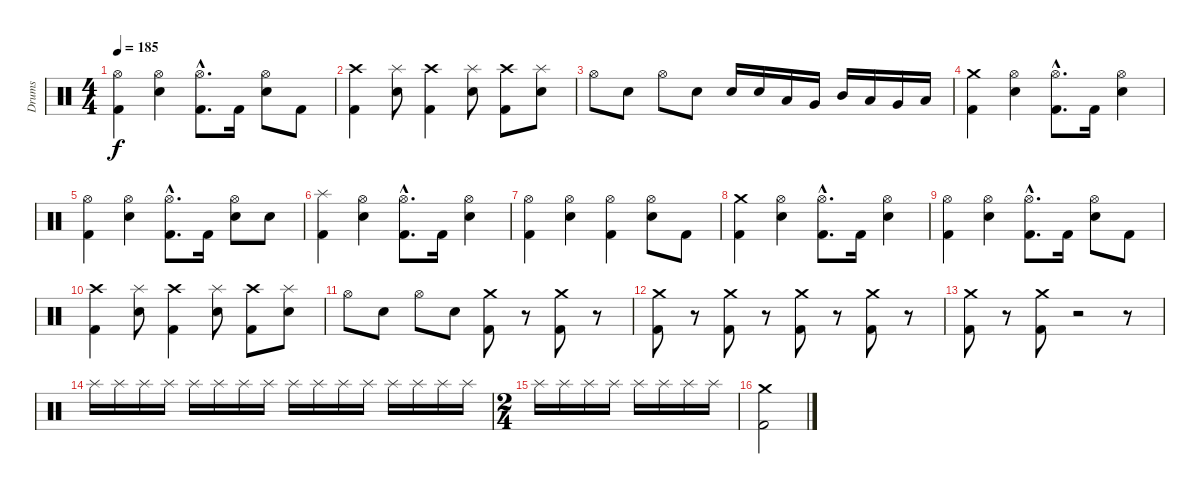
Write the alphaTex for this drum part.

\track ("Drums" "Drums") {instrument percussion}
\staff {score}
\articulation defaults
\ts (4 4)
\tempo 185
\clef neutral
\ks c
("Hi-Hat (open)" "Kick (hit) 2").4{dy f} ("Hi-Hat (open)" "Snare (hit) 2").4 ("Hi-Hat (open)"{hac} "Kick (hit) 2"{hac}).8{d} "Kick (hit) 2".16 ("Hi-Hat (open)" "Snare (hit) 2").8 "Kick (hit) 2".8 |
("Crash high (hit)" "Kick (hit) 2").4 ("Splash (hit)" "Snare (hit) 2").8 ("Crash high (hit)" "Kick (hit) 2").4 ("Splash (hit)" "Snare (hit) 2").8 ("Crash high (hit)" "Kick (hit) 2").8 ("Splash (hit)" "Snare (hit) 2").8 |
"Hi-Hat (open)".8 "Snare (hit) 2".8 "Hi-Hat (open)".8 "Snare (hit) 2".8 "Snare (hit) 2".16 "Snare (hit) 2".16 "Low Tom (hit)".16 "Very Low Tom (hit)".16 "Mid Tom (hit)".16 "Low Tom (hit)".16 "Very Low Tom (hit)".16 "Low Floor Tom (hit)".16 |
("Crash medium (hit)" "Kick (hit) 2").4 ("Hi-Hat (open)" "Snare (hit) 2").4 ("Hi-Hat (open)"{hac} "Kick (hit) 2"{hac}).8{d} "Kick (hit) 2".16 ("Hi-Hat (open)" "Snare (hit) 2").4 |
("Hi-Hat (open)" "Kick (hit) 2").4 ("Hi-Hat (open)" "Snare (hit) 2").4 ("Hi-Hat (open)"{hac} "Kick (hit) 2"{hac}).8{d} "Kick (hit) 2".16 ("Hi-Hat (open)" "Snare (hit) 2").8 "Snare (hit) 2".8 |
("Splash (hit)" "Kick (hit) 2").4 ("Hi-Hat (open)" "Snare (hit) 2").4 ("Hi-Hat (open)"{hac} "Kick (hit) 2"{hac}).8{d} "Kick (hit) 2".16 ("Hi-Hat (open)" "Snare (hit) 2").4 |
("Hi-Hat (open)" "Kick (hit) 2").4 ("Hi-Hat (open)" "Snare (hit) 2").4 ("Hi-Hat (open)" "Kick (hit) 2").4 ("Hi-Hat (open)" "Snare (hit) 2").8 "Kick (hit) 2".8 |
("Crash medium (hit)" "Kick (hit) 2").4 ("Hi-Hat (open)" "Snare (hit) 2").4 ("Hi-Hat (open)"{hac} "Kick (hit) 2"{hac}).8{d} "Kick (hit) 2".16 ("Hi-Hat (open)" "Snare (hit) 2").4 |
("Hi-Hat (open)" "Kick (hit) 2").4 ("Hi-Hat (open)" "Snare (hit) 2").4 ("Hi-Hat (open)"{hac} "Kick (hit) 2"{hac}).8{d} "Kick (hit) 2".16 ("Hi-Hat (open)" "Snare (hit) 2").8 "Kick (hit) 2".8 |
("Crash high (hit)" "Kick (hit) 2").4 ("Splash (hit)" "Snare (hit) 2").8 ("Crash high (hit)" "Kick (hit) 2").4 ("Splash (hit)" "Snare (hit) 2").8 ("Crash high (hit)" "Kick (hit) 2").8 ("Splash (hit)" "Snare (hit) 2").8 |
"Hi-Hat (open)".8 "Snare (hit) 2".8 "Hi-Hat (open)".8 "Snare (hit) 2".8 ("Crash medium (hit)" "Kick (hit) 2").8 r.8 ("Crash medium (hit)" "Kick (hit) 2").8 r.8 |
("Crash medium (hit)" "Kick (hit) 2").8 r.8 ("Crash medium (hit)" "Kick (hit) 2").8 r.8 ("Crash medium (hit)" "Kick (hit) 2").8 r.8 ("Crash medium (hit)" "Kick (hit) 2").8 r.8 |
("Crash medium (hit)" "Kick (hit) 2").8 r.8 ("Crash medium (hit)" "Kick (hit) 2").8 r.2 r.8 |
"Splash (hit)".16{volume 6} "Splash (hit)".16 "Splash (hit)".16 "Splash (hit)".16 "Splash (hit)".16 "Splash (hit)".16 "Splash (hit)".16 "Splash (hit)".16 "Splash (hit)".16 "Splash (hit)".16 "Splash (hit)".16 "Splash (hit)".16 "Splash (hit)".16 "Splash (hit)".16 "Splash (hit)".16 "Splash (hit)".16 |
\ts (2 4)
"Splash (hit)".16 "Splash (hit)".16 "Splash (hit)".16 "Splash (hit)".16 "Splash (hit)".16 "Splash (hit)".16 "Splash (hit)".16 "Splash (hit)".16 |
("Crash medium (hit)" "Kick (hit) 2").2{volume 16}
